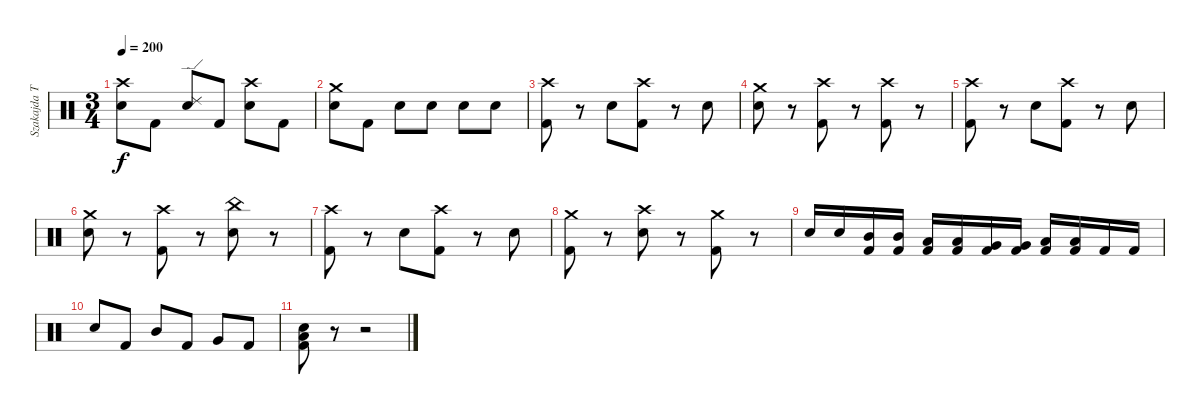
\track ("Szakajda Tibi" "Szakajda T") {instrument percussion}
\staff {score}
\articulation defaults
\ts (3 4)
\tempo 200
\clef neutral
\ks c
("Crash high (hit)" "Electric Snare (hit)").8{dy f} "Kick (hit) 2".8 ("Ride (edge) 2" "Electric Snare (hit)").8 "Kick (hit) 2".8 ("Crash high (hit)" "Electric Snare (hit)").8 "Kick (hit) 2".8 |
("Crash medium (hit)" "Electric Snare (hit)").8 "Kick (hit) 2".8 "Electric Snare (hit)".8 "Electric Snare (hit)".8 "Electric Snare (hit)".8 "Electric Snare (hit)".8 |
("Crash high (hit)" "Kick (hit) 2").8 r.8 "Electric Snare (hit)".8 ("Crash high (hit)" "Kick (hit) 2").8 r.8 "Electric Snare (hit)".8 |
("Crash medium (hit)" "Electric Snare (hit)").8 r.8 ("Crash high (hit)" "Kick (hit) 2").8 r.8 ("Crash high (hit)" "Kick (hit) 2").8 r.8 |
("Crash high (hit)" "Kick (hit) 2").8 r.8 "Electric Snare (hit)".8 ("Crash high (hit)" "Kick (hit) 2").8 r.8 "Electric Snare (hit)".8 |
("Crash medium (hit)" "Electric Snare (hit)").8 r.8 ("Crash high (hit)" "Kick (hit) 2").8 r.8 ("China (hit)" "Electric Snare (hit)").8 r.8 |
("Crash high (hit)" "Kick (hit) 2").8 r.8 "Electric Snare (hit)".8 ("Crash high (hit)" "Kick (hit) 2").8 r.8 "Electric Snare (hit)".8 |
("Crash medium (hit)" "Kick (hit) 2").8 r.8 ("Crash high (hit)" "Electric Snare (hit)").8 r.8 ("Crash medium (hit)" "Kick (hit) 2").8 r.8 |
"Electric Snare (hit)".16 "Electric Snare (hit)".16 ("Mid Tom (hit)" "Kick (hit) 2").16 ("Mid Tom (hit)" "Kick (hit) 2").16 ("Low Tom (hit)" "Kick (hit) 2").16 ("Low Tom (hit)" "Kick (hit) 2").16 ("Very Low Tom (hit)" "Kick (hit) 2").16 ("Very Low Tom (hit)" "Kick (hit) 2").16 ("Low Floor Tom (hit)" "Kick (hit) 2").16 ("Low Floor Tom (hit)" "Kick (hit) 2").16 "Kick (hit) 2".16 "Kick (hit) 2".16 |
"Electric Snare (hit)".8 "Kick (hit) 2".8 "Mid Tom (hit)".8 "Kick (hit) 2".8 "Very Low Tom (hit)".8 "Kick (hit) 2".8 |
("Low Floor Tom (hit)" "Electric Snare (hit)" "Kick (hit) 2").8 r.8 r.2
